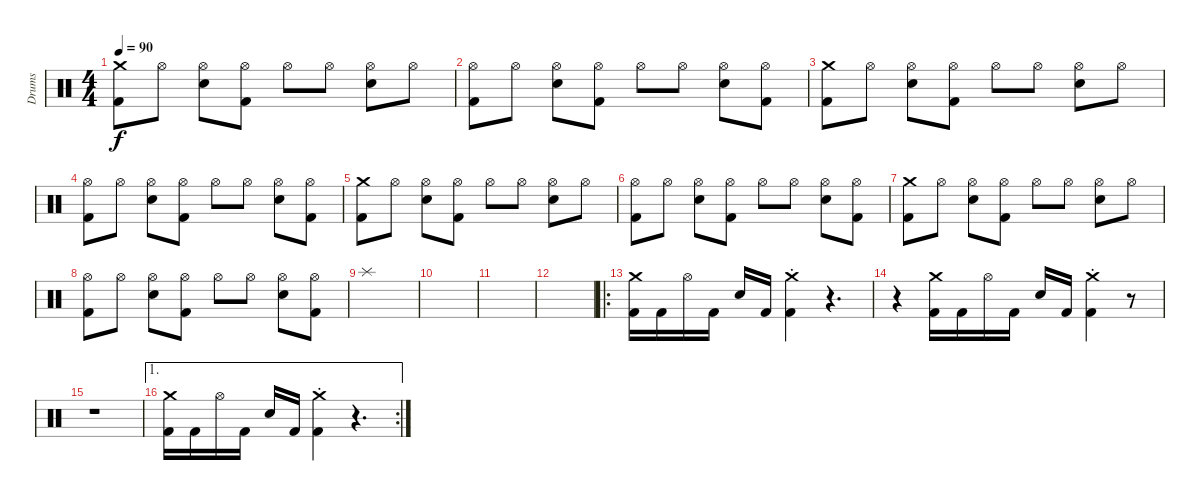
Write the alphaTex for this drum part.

\track ("Drums" "Drums") {instrument percussion}
\staff {score}
\articulation defaults
\ts (4 4)
\tempo 90
\clef neutral
\ks c
("Crash medium (hit)" "Kick (hit) 2").8{dy f} "Hi-Hat (open)".8 ("Hi-Hat (open)" "Snare (hit) 2").8 ("Hi-Hat (open)" "Kick (hit) 2").8 "Hi-Hat (open)".8 "Hi-Hat (open)".8 ("Hi-Hat (open)" "Snare (hit) 2").8 "Hi-Hat (open)".8 |
("Hi-Hat (open)" "Kick (hit) 2").8 "Hi-Hat (open)".8 ("Hi-Hat (open)" "Snare (hit) 2").8 ("Hi-Hat (open)" "Kick (hit) 2").8 "Hi-Hat (open)".8 "Hi-Hat (open)".8 ("Hi-Hat (open)" "Snare (hit) 2").8 ("Hi-Hat (open)" "Kick (hit) 2").8 |
("Crash medium (hit)" "Kick (hit) 2").8 "Hi-Hat (open)".8 ("Hi-Hat (open)" "Snare (hit) 2").8 ("Hi-Hat (open)" "Kick (hit) 2").8 "Hi-Hat (open)".8 "Hi-Hat (open)".8 ("Hi-Hat (open)" "Snare (hit) 2").8 "Hi-Hat (open)".8 |
("Hi-Hat (open)" "Kick (hit) 2").8 "Hi-Hat (open)".8 ("Hi-Hat (open)" "Snare (hit) 2").8 ("Hi-Hat (open)" "Kick (hit) 2").8 "Hi-Hat (open)".8 "Hi-Hat (open)".8 ("Hi-Hat (open)" "Snare (hit) 2").8 ("Hi-Hat (open)" "Kick (hit) 2").8 |
("Crash medium (hit)" "Kick (hit) 2").8 "Hi-Hat (open)".8 ("Hi-Hat (open)" "Snare (hit) 2").8 ("Hi-Hat (open)" "Kick (hit) 2").8 "Hi-Hat (open)".8 "Hi-Hat (open)".8 ("Hi-Hat (open)" "Snare (hit) 2").8 "Hi-Hat (open)".8 |
("Hi-Hat (open)" "Kick (hit) 2").8 "Hi-Hat (open)".8 ("Hi-Hat (open)" "Snare (hit) 2").8 ("Hi-Hat (open)" "Kick (hit) 2").8 "Hi-Hat (open)".8 "Hi-Hat (open)".8 ("Hi-Hat (open)" "Snare (hit) 2").8 ("Hi-Hat (open)" "Kick (hit) 2").8 |
("Crash medium (hit)" "Kick (hit) 2").8 "Hi-Hat (open)".8 ("Hi-Hat (open)" "Snare (hit) 2").8 ("Hi-Hat (open)" "Kick (hit) 2").8 "Hi-Hat (open)".8 "Hi-Hat (open)".8 ("Hi-Hat (open)" "Snare (hit) 2").8 "Hi-Hat (open)".8 |
("Hi-Hat (open)" "Kick (hit) 2").8 "Hi-Hat (open)".8 ("Hi-Hat (open)" "Snare (hit) 2").8 ("Hi-Hat (open)" "Kick (hit) 2").8 "Hi-Hat (open)".8 "Hi-Hat (open)".8 ("Hi-Hat (open)" "Snare (hit) 2").8 ("Hi-Hat (open)" "Kick (hit) 2").8 |
"Splash (hit)".1 |
|
|
|
\ro
("Crash medium (hit)" "Kick (hit) 2").16 "Kick (hit) 2".16 "Hi-Hat (open)".16 "Kick (hit) 2".16 "Snare (hit) 2".16 "Kick (hit) 2".16 ("Crash medium (hit)"{st} "Kick (hit) 2").4 r.4{d volume 0} |
r.4{volume 13} ("Crash medium (hit)" "Kick (hit) 2").16 "Kick (hit) 2".16 "Hi-Hat (open)".16 "Kick (hit) 2".16 "Snare (hit) 2".16 "Kick (hit) 2".16 ("Crash medium (hit)"{st} "Kick (hit) 2").4 r.8{volume 0} |
r.1 |
\ae 1
\rc 2
("Crash medium (hit)" "Kick (hit) 2").16{volume 13} "Kick (hit) 2".16 "Hi-Hat (open)".16 "Kick (hit) 2".16 "Snare (hit) 2".16 "Kick (hit) 2".16 ("Crash medium (hit)"{st} "Kick (hit) 2").4 r.4{d}
